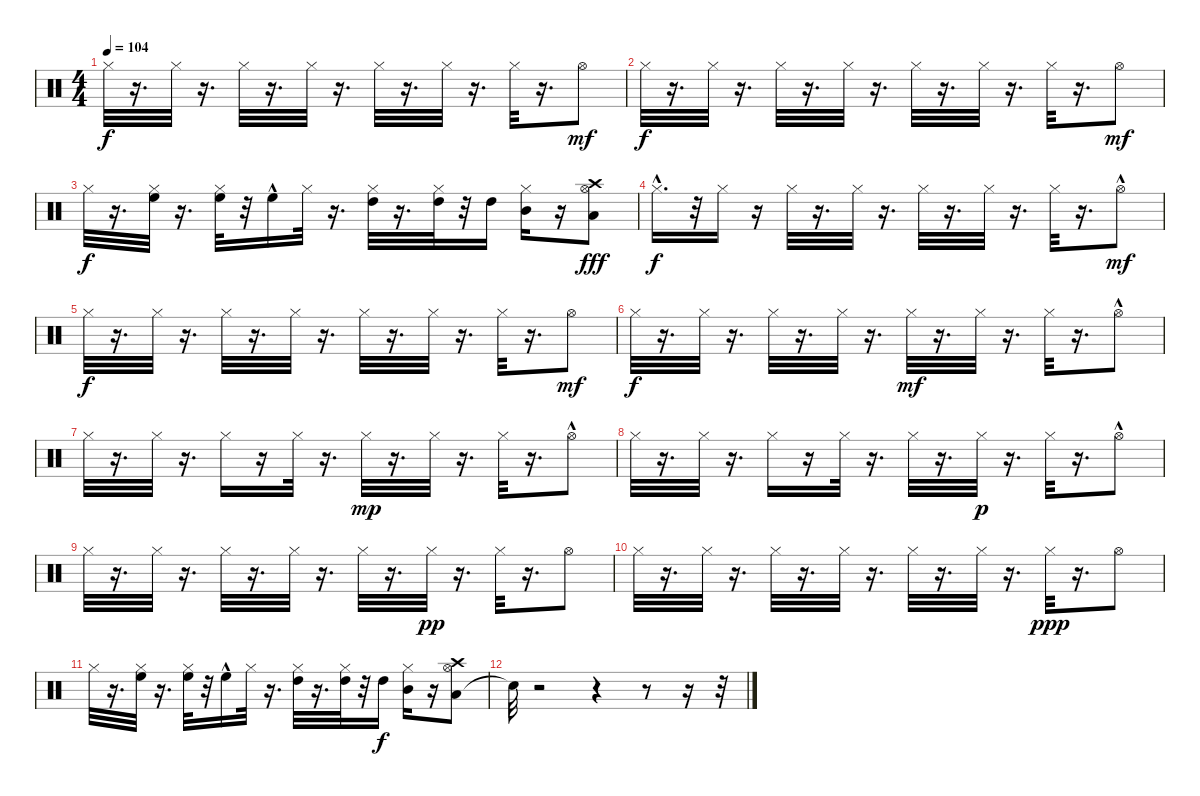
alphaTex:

\track "" {instrument percussion}
\staff {score}
\articulation defaults
\ts (4 4)
\tempo 104
\clef neutral
\ks c "Hi-Hat (closed)".32{dy f}
r.16{d} "Hi-Hat (closed)".32 r.16{d} "Hi-Hat (closed)".32 r.16{d} "Hi-Hat (closed)".32 r.16{d} "Hi-Hat (closed)".32 r.16{d} "Hi-Hat (closed)".32 r.16{d} "Hi-Hat (closed)".32 r.16{d} "Hi-Hat (open)".8{dy mf} |
"Hi-Hat (closed)".32{dy f} r.16{d} "Hi-Hat (closed)".32 r.16{d} "Hi-Hat (closed)".32 r.16{d} "Hi-Hat (closed)".32 r.16{d} "Hi-Hat (closed)".32 r.16{d} "Hi-Hat (closed)".32 r.16{d} "Hi-Hat (closed)".32 r.16{d} "Hi-Hat (open)".8{dy mf} |
"Hi-Hat (closed)".32{dy f} r.16{d} ("High Floor Tom (hit)" "Hi-Hat (closed)").32 r.16{d} ("High Floor Tom (hit)" "Hi-Hat (closed)").32 r.32 "High Floor Tom (hit)"{hac}.16 "Hi-Hat (closed)".32 r.16{d} ("High Tom (hit)" "Hi-Hat (closed)").32 r.16{d} ("High Tom (hit)" "Hi-Hat (closed)").32 r.32 "High Tom (hit)".16 ("Mid Tom (hit)" "Hi-Hat (closed)").16 r.16 ("Low Tom (hit)" "Crash high (hit)" "Hi-Hat (open)").8{dy fff} |
"Hi-Hat (closed)"{hac}.16{d dy f} r.32 "Hi-Hat (closed)".16 r.16 "Hi-Hat (closed)".32 r.16{d} "Hi-Hat (closed)".32 r.16{d} "Hi-Hat (closed)".32 r.16{d} "Hi-Hat (closed)".32 r.16{d} "Hi-Hat (closed)".32 r.16{d} "Hi-Hat (open)"{hac}.8{dy mf} |
"Hi-Hat (closed)".32{dy f} r.16{d} "Hi-Hat (closed)".32 r.16{d} "Hi-Hat (closed)".32 r.16{d} "Hi-Hat (closed)".32 r.16{d} "Hi-Hat (closed)".32 r.16{d} "Hi-Hat (closed)".32 r.16{d} "Hi-Hat (closed)".32 r.16{d} "Hi-Hat (open)".8{dy mf} |
"Hi-Hat (closed)".32{dy f} r.16{d} "Hi-Hat (closed)".32 r.16{d} "Hi-Hat (closed)".32 r.16{d} "Hi-Hat (closed)".32 r.16{d} "Hi-Hat (closed)".32{dy mf} r.16{d} "Hi-Hat (closed)".32 r.16{d} "Hi-Hat (closed)".32 r.16{d} "Hi-Hat (open)"{hac}.8 |
"Hi-Hat (closed)".32 r.16{d} "Hi-Hat (closed)".32 r.16{d} "Hi-Hat (closed)".16 r.16 "Hi-Hat (closed)".32 r.16{d} "Hi-Hat (closed)".32{dy mp} r.16{d} "Hi-Hat (closed)".32 r.16{d} "Hi-Hat (closed)".32 r.16{d} "Hi-Hat (open)"{hac}.8 |
"Hi-Hat (closed)".32 r.16{d} "Hi-Hat (closed)".32 r.16{d} "Hi-Hat (closed)".16 r.16 "Hi-Hat (closed)".32 r.16{d} "Hi-Hat (closed)".32 r.16{d} "Hi-Hat (closed)".32{dy p} r.16{d} "Hi-Hat (closed)".32 r.16{d} "Hi-Hat (open)"{hac}.8 |
"Hi-Hat (closed)".32 r.16{d} "Hi-Hat (closed)".32 r.16{d} "Hi-Hat (closed)".32 r.16{d} "Hi-Hat (closed)".32 r.16{d} "Hi-Hat (closed)".32 r.16{d} "Hi-Hat (closed)".32{dy pp} r.16{d} "Hi-Hat (closed)".32 r.16{d} "Hi-Hat (open)".8 |
"Hi-Hat (closed)".32 r.16{d} "Hi-Hat (closed)".32 r.16{d} "Hi-Hat (closed)".32 r.16{d} "Hi-Hat (closed)".32 r.16{d} "Hi-Hat (closed)".32 r.16{d} "Hi-Hat (closed)".32 r.16{d} "Hi-Hat (closed)".32{dy ppp} r.16{d} "Hi-Hat (open)".8 |
"Hi-Hat (closed)".32 r.16{d} ("High Floor Tom (hit)" "Hi-Hat (closed)").32 r.16{d} ("High Floor Tom (hit)" "Hi-Hat (closed)").32 r.32 "High Floor Tom (hit)"{hac}.16 "Hi-Hat (closed)".32 r.16{d} ("High Tom (hit)" "Hi-Hat (closed)").32 r.16{d} ("High Tom (hit)" "Hi-Hat (closed)").32 r.32 "High Tom (hit)".16{dy f} ("Mid Tom (hit)" "Hi-Hat (closed)").16 r.16 ("Low Tom (hit)" "Crash high (hit)" "Hi-Hat (open)").8 |
"Snare (hit)"{t}.32 r.2 r.4 r.8 r.16 r.32
